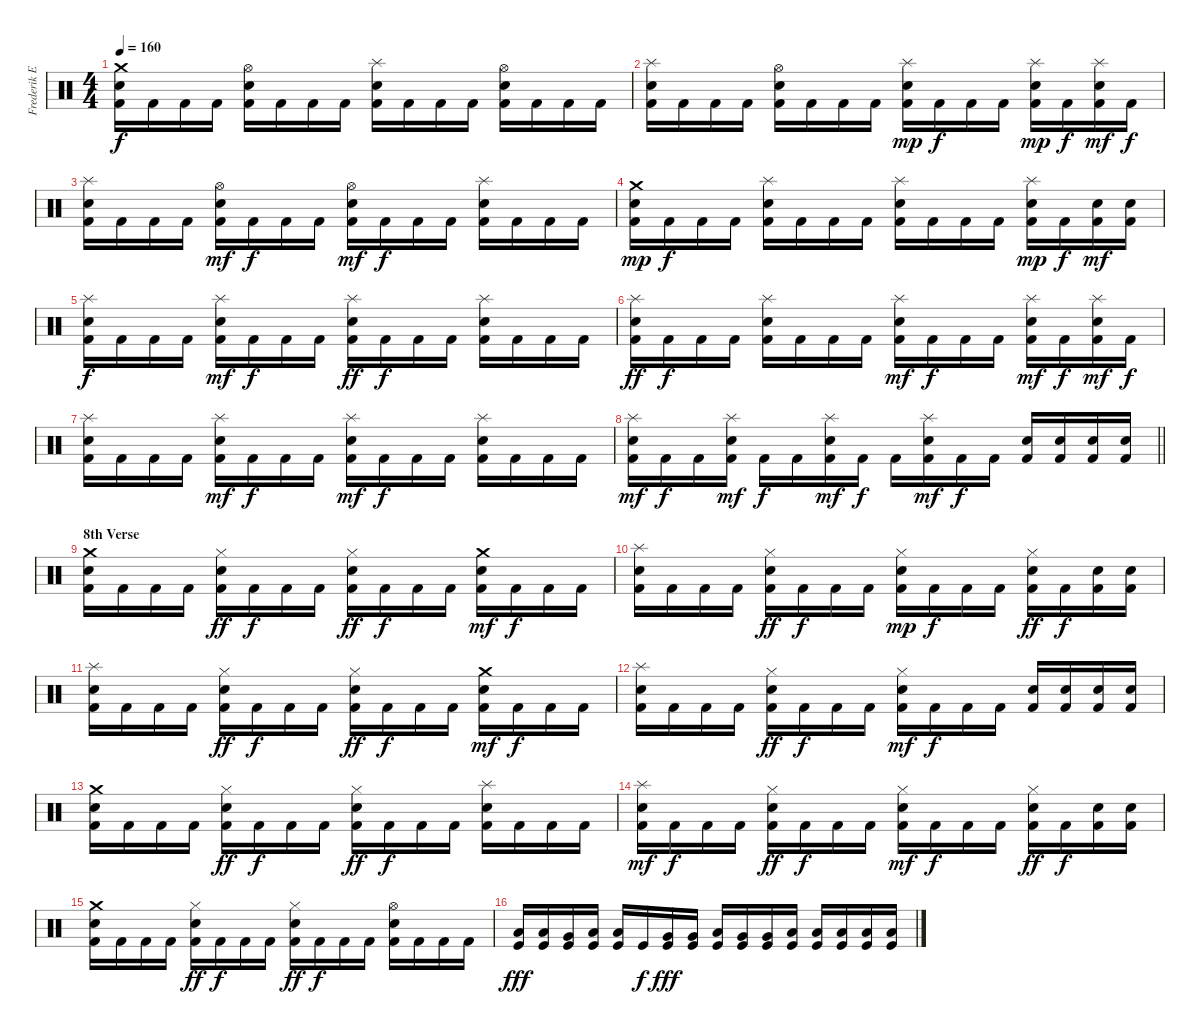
\track ("Frederik Ehmke" "Frederik E") {instrument percussion}
\staff {score}
\articulation defaults
\ts (4 4)
\tempo 160
\clef neutral
\ks c
("Crash medium (hit)" "Electric Snare (hit)" "Kick (hit) 2").16{dy f} "Kick (hit) 2".16 "Kick (hit) 2".16 "Kick (hit) 2".16 ("Hi-Hat (open)" "Electric Snare (hit)" "Kick (hit) 2").16 "Kick (hit) 2".16 "Kick (hit) 2".16 "Kick (hit) 2".16 ("Splash (hit)" "Electric Snare (hit)" "Kick (hit) 2").16 "Kick (hit) 2".16 "Kick (hit) 2".16 "Kick (hit) 2".16 ("Hi-Hat (open)" "Electric Snare (hit)" "Kick (hit) 2").16 "Kick (hit) 2".16 "Kick (hit) 2".16 "Kick (hit) 2".16 |
("Splash (hit)" "Electric Snare (hit)" "Kick (hit) 2").16 "Kick (hit) 2".16 "Kick (hit) 2".16 "Kick (hit) 2".16 ("Hi-Hat (open)" "Electric Snare (hit)" "Kick (hit) 2").16 "Kick (hit) 2".16 "Kick (hit) 2".16 "Kick (hit) 2".16 ("Splash (hit)" "Electric Snare (hit)" "Kick (hit) 2").16{dy mp} "Kick (hit) 2".16{dy f} "Kick (hit) 2".16 "Kick (hit) 2".16 ("Splash (hit)" "Electric Snare (hit)" "Kick (hit) 2").16{dy mp} "Kick (hit) 2".16{dy f} ("Splash (hit)" "Electric Snare (hit)" "Kick (hit) 2").16{dy mf} "Kick (hit) 2".16{dy f} |
("Splash (hit)" "Electric Snare (hit)" "Kick (hit) 2").16 "Kick (hit) 2".16 "Kick (hit) 2".16 "Kick (hit) 2".16 ("Hi-Hat (open)" "Electric Snare (hit)" "Kick (hit) 2").16{dy mf} "Kick (hit) 2".16{dy f} "Kick (hit) 2".16 "Kick (hit) 2".16 ("Hi-Hat (open)" "Electric Snare (hit)" "Kick (hit) 2").16{dy mf} "Kick (hit) 2".16{dy f} "Kick (hit) 2".16 "Kick (hit) 2".16 ("Splash (hit)" "Electric Snare (hit)" "Kick (hit) 2").16 "Kick (hit) 2".16 "Kick (hit) 2".16 "Kick (hit) 2".16 |
("Crash medium (hit)" "Electric Snare (hit)" "Kick (hit) 2").16{dy mp} "Kick (hit) 2".16{dy f} "Kick (hit) 2".16 "Kick (hit) 2".16 ("Splash (hit)" "Electric Snare (hit)" "Kick (hit) 2").16 "Kick (hit) 2".16 "Kick (hit) 2".16 "Kick (hit) 2".16 ("Splash (hit)" "Electric Snare (hit)" "Kick (hit) 2").16 "Kick (hit) 2".16 "Kick (hit) 2".16 "Kick (hit) 2".16 ("Splash (hit)" "Electric Snare (hit)" "Kick (hit) 2").16{dy mp} "Kick (hit) 2".16{dy f} ("Electric Snare (hit)" "Kick (hit) 2").16{dy mf} ("Electric Snare (hit)" "Kick (hit) 2").16 |
("Splash (hit)" "Electric Snare (hit)" "Kick (hit) 2").16{dy f} "Kick (hit) 2".16 "Kick (hit) 2".16 "Kick (hit) 2".16 ("Splash (hit)" "Electric Snare (hit)" "Kick (hit) 2").16{dy mf} "Kick (hit) 2".16{dy f} "Kick (hit) 2".16 "Kick (hit) 2".16 ("Splash (hit)" "Electric Snare (hit)" "Kick (hit) 2").16{dy ff} "Kick (hit) 2".16{dy f} "Kick (hit) 2".16 "Kick (hit) 2".16 ("Splash (hit)" "Electric Snare (hit)" "Kick (hit) 2").16 "Kick (hit) 2".16 "Kick (hit) 2".16 "Kick (hit) 2".16 |
("Splash (hit)" "Electric Snare (hit)" "Kick (hit) 2").16{dy ff} "Kick (hit) 2".16{dy f} "Kick (hit) 2".16 "Kick (hit) 2".16 ("Splash (hit)" "Electric Snare (hit)" "Kick (hit) 2").16 "Kick (hit) 2".16 "Kick (hit) 2".16 "Kick (hit) 2".16 ("Splash (hit)" "Electric Snare (hit)" "Kick (hit) 2").16{dy mf} "Kick (hit) 2".16{dy f} "Kick (hit) 2".16 "Kick (hit) 2".16 ("Splash (hit)" "Electric Snare (hit)" "Kick (hit) 2").16{dy mf} "Kick (hit) 2".16{dy f} ("Splash (hit)" "Electric Snare (hit)" "Kick (hit) 2").16{dy mf} "Kick (hit) 2".16{dy f} |
("Splash (hit)" "Electric Snare (hit)" "Kick (hit) 2").16 "Kick (hit) 2".16 "Kick (hit) 2".16 "Kick (hit) 2".16 ("Splash (hit)" "Electric Snare (hit)" "Kick (hit) 2").16{dy mf} "Kick (hit) 2".16{dy f} "Kick (hit) 2".16 "Kick (hit) 2".16 ("Splash (hit)" "Electric Snare (hit)" "Kick (hit) 2").16{dy mf} "Kick (hit) 2".16{dy f} "Kick (hit) 2".16 "Kick (hit) 2".16 ("Splash (hit)" "Electric Snare (hit)" "Kick (hit) 2").16 "Kick (hit) 2".16 "Kick (hit) 2".16 "Kick (hit) 2".16 |
\barLineRight lightlight
("Splash (hit)" "Electric Snare (hit)" "Kick (hit) 2").16{dy mf} "Kick (hit) 2".16{dy f} "Kick (hit) 2".16 ("Splash (hit)" "Electric Snare (hit)" "Kick (hit) 2").16{dy mf} "Kick (hit) 2".16{dy f} "Kick (hit) 2".16 ("Splash (hit)" "Electric Snare (hit)" "Kick (hit) 2").16{dy mf} "Kick (hit) 2".16{dy f} "Kick (hit) 2".16 ("Splash (hit)" "Electric Snare (hit)" "Kick (hit) 2").16{dy mf} "Kick (hit) 2".16{dy f} "Kick (hit) 2".16 ("Electric Snare (hit)" "Kick (hit) 2").16 ("Electric Snare (hit)" "Kick (hit) 2").16 ("Electric Snare (hit)" "Kick (hit) 2").16 ("Electric Snare (hit)" "Kick (hit) 2").16 |
\section ("" "8th Verse")
("Crash medium (hit)" "Electric Snare (hit)" "Kick (hit) 2").16 "Kick (hit) 2".16 "Kick (hit) 2".16 "Kick (hit) 2".16 ("Hi-Hat (closed)" "Electric Snare (hit)" "Kick (hit) 2").16{dy ff} "Kick (hit) 2".16{dy f} "Kick (hit) 2".16 "Kick (hit) 2".16 ("Hi-Hat (closed)" "Electric Snare (hit)" "Kick (hit) 2").16{dy ff} "Kick (hit) 2".16{dy f} "Kick (hit) 2".16 "Kick (hit) 2".16 ("Crash medium (hit)" "Electric Snare (hit)" "Kick (hit) 2").16{dy mf} "Kick (hit) 2".16{dy f} "Kick (hit) 2".16 "Kick (hit) 2".16 |
("Splash (hit)" "Electric Snare (hit)" "Kick (hit) 2").16 "Kick (hit) 2".16 "Kick (hit) 2".16 "Kick (hit) 2".16 ("Hi-Hat (closed)" "Electric Snare (hit)" "Kick (hit) 2").16{dy ff} "Kick (hit) 2".16{dy f} "Kick (hit) 2".16 "Kick (hit) 2".16 ("Hi-Hat (closed)" "Electric Snare (hit)" "Kick (hit) 2").16{dy mp} "Kick (hit) 2".16{dy f} "Kick (hit) 2".16 "Kick (hit) 2".16 ("Hi-Hat (closed)" "Electric Snare (hit)" "Kick (hit) 2").16{dy ff} "Kick (hit) 2".16{dy f} ("Electric Snare (hit)" "Kick (hit) 2").16 ("Electric Snare (hit)" "Kick (hit) 2").16 |
("Splash (hit)" "Electric Snare (hit)" "Kick (hit) 2").16 "Kick (hit) 2".16 "Kick (hit) 2".16 "Kick (hit) 2".16 ("Hi-Hat (closed)" "Electric Snare (hit)" "Kick (hit) 2").16{dy ff} "Kick (hit) 2".16{dy f} "Kick (hit) 2".16 "Kick (hit) 2".16 ("Hi-Hat (closed)" "Electric Snare (hit)" "Kick (hit) 2").16{dy ff} "Kick (hit) 2".16{dy f} "Kick (hit) 2".16 "Kick (hit) 2".16 ("Crash medium (hit)" "Electric Snare (hit)" "Kick (hit) 2").16{dy mf} "Kick (hit) 2".16{dy f} "Kick (hit) 2".16 "Kick (hit) 2".16 |
("Splash (hit)" "Electric Snare (hit)" "Kick (hit) 2").16 "Kick (hit) 2".16 "Kick (hit) 2".16 "Kick (hit) 2".16 ("Hi-Hat (closed)" "Electric Snare (hit)" "Kick (hit) 2").16{dy ff} "Kick (hit) 2".16{dy f} "Kick (hit) 2".16 "Kick (hit) 2".16 ("Hi-Hat (closed)" "Electric Snare (hit)" "Kick (hit) 2").16{dy mf} "Kick (hit) 2".16{dy f} "Kick (hit) 2".16 "Kick (hit) 2".16 ("Electric Snare (hit)" "Kick (hit) 2").16 ("Electric Snare (hit)" "Kick (hit) 2").16 ("Electric Snare (hit)" "Kick (hit) 2").16 ("Electric Snare (hit)" "Kick (hit) 2").16 |
("Crash medium (hit)" "Electric Snare (hit)" "Kick (hit) 2").16 "Kick (hit) 2".16 "Kick (hit) 2".16 "Kick (hit) 2".16 ("Hi-Hat (closed)" "Electric Snare (hit)" "Kick (hit) 2").16{dy ff} "Kick (hit) 2".16{dy f} "Kick (hit) 2".16 "Kick (hit) 2".16 ("Hi-Hat (closed)" "Electric Snare (hit)" "Kick (hit) 2").16{dy ff} "Kick (hit) 2".16{dy f} "Kick (hit) 2".16 "Kick (hit) 2".16 ("Splash (hit)" "Electric Snare (hit)" "Kick (hit) 2").16 "Kick (hit) 2".16 "Kick (hit) 2".16 "Kick (hit) 2".16 |
("Splash (hit)" "Electric Snare (hit)" "Kick (hit) 2").16{dy mf} "Kick (hit) 2".16{dy f} "Kick (hit) 2".16 "Kick (hit) 2".16 ("Hi-Hat (closed)" "Electric Snare (hit)" "Kick (hit) 2").16{dy ff} "Kick (hit) 2".16{dy f} "Kick (hit) 2".16 "Kick (hit) 2".16 ("Hi-Hat (closed)" "Electric Snare (hit)" "Kick (hit) 2").16{dy mf} "Kick (hit) 2".16{dy f} "Kick (hit) 2".16 "Kick (hit) 2".16 ("Hi-Hat (closed)" "Electric Snare (hit)" "Kick (hit) 2").16{dy ff} "Kick (hit) 2".16{dy f} ("Electric Snare (hit)" "Kick (hit) 2").16 ("Electric Snare (hit)" "Kick (hit) 2").16 |
("Crash medium (hit)" "Electric Snare (hit)" "Kick (hit) 2").16 "Kick (hit) 2".16 "Kick (hit) 2".16 "Kick (hit) 2".16 ("Hi-Hat (closed)" "Electric Snare (hit)" "Kick (hit) 2").16{dy ff} "Kick (hit) 2".16{dy f} "Kick (hit) 2".16 "Kick (hit) 2".16 ("Hi-Hat (closed)" "Electric Snare (hit)" "Kick (hit) 2").16{dy ff} "Kick (hit) 2".16{dy f} "Kick (hit) 2".16 "Kick (hit) 2".16 ("Hi-Hat (open)" "Electric Snare (hit)" "Kick (hit) 2").16 "Kick (hit) 2".16 "Kick (hit) 2".16 "Kick (hit) 2".16 |
("Low Tom (hit)" "Kick (hit)").16{dy fff} ("Low Tom (hit)" "Kick (hit)").16 ("Very Low Tom (hit)" "Kick (hit)").16 ("Low Floor Tom (hit)" "Kick (hit)").16 ("Low Tom (hit)" "Kick (hit)").16 "Kick (hit)".16{dy f} ("Very Low Tom (hit)" "Kick (hit)").16{dy fff} ("Very Low Tom (hit)" "Kick (hit)").16 ("Low Floor Tom (hit)" "Kick (hit)").16 ("Very Low Tom (hit)" "Kick (hit)").16 ("Very Low Tom (hit)" "Kick (hit)").16 ("Low Floor Tom (hit)" "Kick (hit)").16 ("Low Floor Tom (hit)" "Kick (hit)").16 ("Low Floor Tom (hit)" "Kick (hit)").16 ("Low Floor Tom (hit)" "Kick (hit)").16 ("Low Floor Tom (hit)" "Kick (hit)").16
